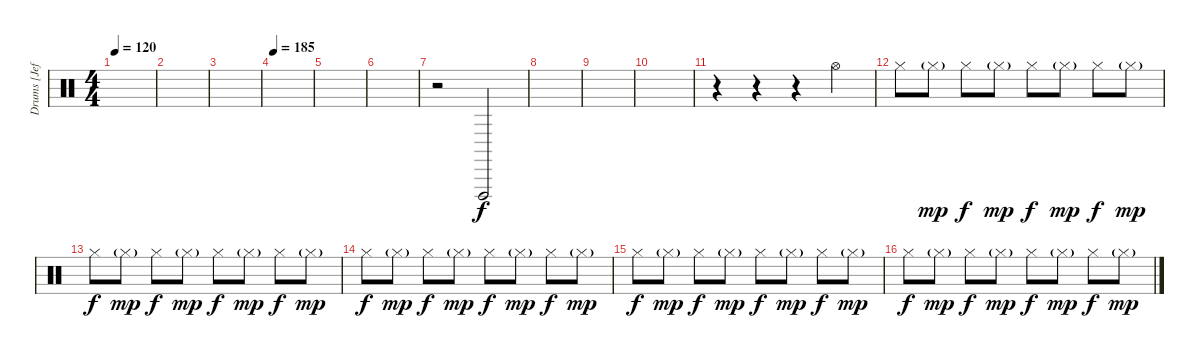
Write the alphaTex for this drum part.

\track ("Drums [Jeff]" "Drums [Jef") {instrument percussion}
\staff {score}
\articulation defaults
\ts (4 4)
\tempo 120
\clef neutral
\ks c
|
|
|
\tempo 185
|
|
|
r.2 "Vibraslap (hit)".2{volume 16 balance 0} |
|
|
|
r.4 r.4 r.4 "Hi-Hat (open)".4 |
"Hi-Hat (closed)".8 "Hi-Hat (closed)"{g}.8{dy mp} "Hi-Hat (closed)".8{dy f} "Hi-Hat (closed)"{g}.8{dy mp} "Hi-Hat (closed)".8{dy f} "Hi-Hat (closed)"{g}.8{dy mp} "Hi-Hat (closed)".8{dy f} "Hi-Hat (closed)"{g}.8{dy mp} |
"Hi-Hat (closed)".8{dy f} "Hi-Hat (closed)"{g}.8{dy mp} "Hi-Hat (closed)".8{dy f} "Hi-Hat (closed)"{g}.8{dy mp} "Hi-Hat (closed)".8{dy f} "Hi-Hat (closed)"{g}.8{dy mp} "Hi-Hat (closed)".8{dy f} "Hi-Hat (closed)"{g}.8{dy mp} |
"Hi-Hat (closed)".8{dy f} "Hi-Hat (closed)"{g}.8{dy mp} "Hi-Hat (closed)".8{dy f} "Hi-Hat (closed)"{g}.8{dy mp} "Hi-Hat (closed)".8{dy f} "Hi-Hat (closed)"{g}.8{dy mp} "Hi-Hat (closed)".8{dy f} "Hi-Hat (closed)"{g}.8{dy mp} |
"Hi-Hat (closed)".8{dy f} "Hi-Hat (closed)"{g}.8{dy mp} "Hi-Hat (closed)".8{dy f} "Hi-Hat (closed)"{g}.8{dy mp} "Hi-Hat (closed)".8{dy f} "Hi-Hat (closed)"{g}.8{dy mp} "Hi-Hat (closed)".8{dy f} "Hi-Hat (closed)"{g}.8{dy mp} |
"Hi-Hat (closed)".8{dy f} "Hi-Hat (closed)"{g}.8{dy mp} "Hi-Hat (closed)".8{dy f} "Hi-Hat (closed)"{g}.8{dy mp} "Hi-Hat (closed)".8{dy f} "Hi-Hat (closed)"{g}.8{dy mp} "Hi-Hat (closed)".8{dy f} "Hi-Hat (closed)"{g}.8{dy mp}
